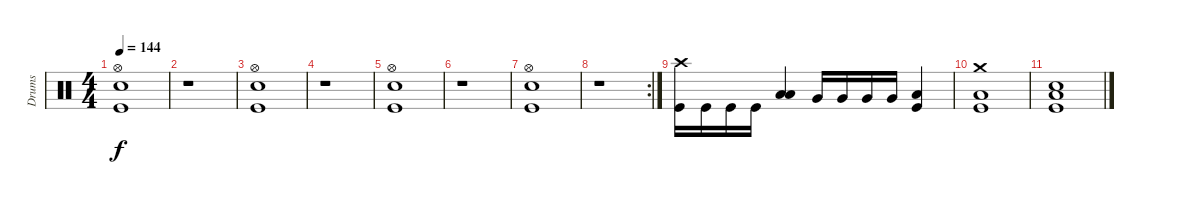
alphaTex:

\track ("Drums" "Drums") {instrument percussion}
\staff {score}
\articulation defaults
\ts (4 4)
\tempo 144
\clef neutral
\ks c
("Hi-Hat (open)" "Snare (hit) 2" "Kick (hit)").1{dy f} |
r.1 |
("Hi-Hat (open)" "Snare (hit) 2" "Kick (hit)").1 |
r.1 |
("Hi-Hat (open)" "Snare (hit) 2" "Kick (hit)").1 |
r.1 |
("Hi-Hat (open)" "Snare (hit) 2" "Kick (hit)").1 |
\rc 2
r.1 |
("Crash high (hit)" "Kick (hit)").16 "Kick (hit)".16 "Kick (hit)".16 "Kick (hit)".16 ("Low Floor Tom (hit)" "Low Tom (hit)").4 "Very Low Tom (hit)".16 "Very Low Tom (hit)".16 "Very Low Tom (hit)".16 "Very Low Tom (hit)".16 ("Low Tom (hit)" "Kick (hit)").4 |
("Crash medium (hit)" "Low Tom (hit)" "Kick (hit)").1 |
("Snare (hit) 2" "Low Floor Tom (hit)" "Kick (hit)").1
